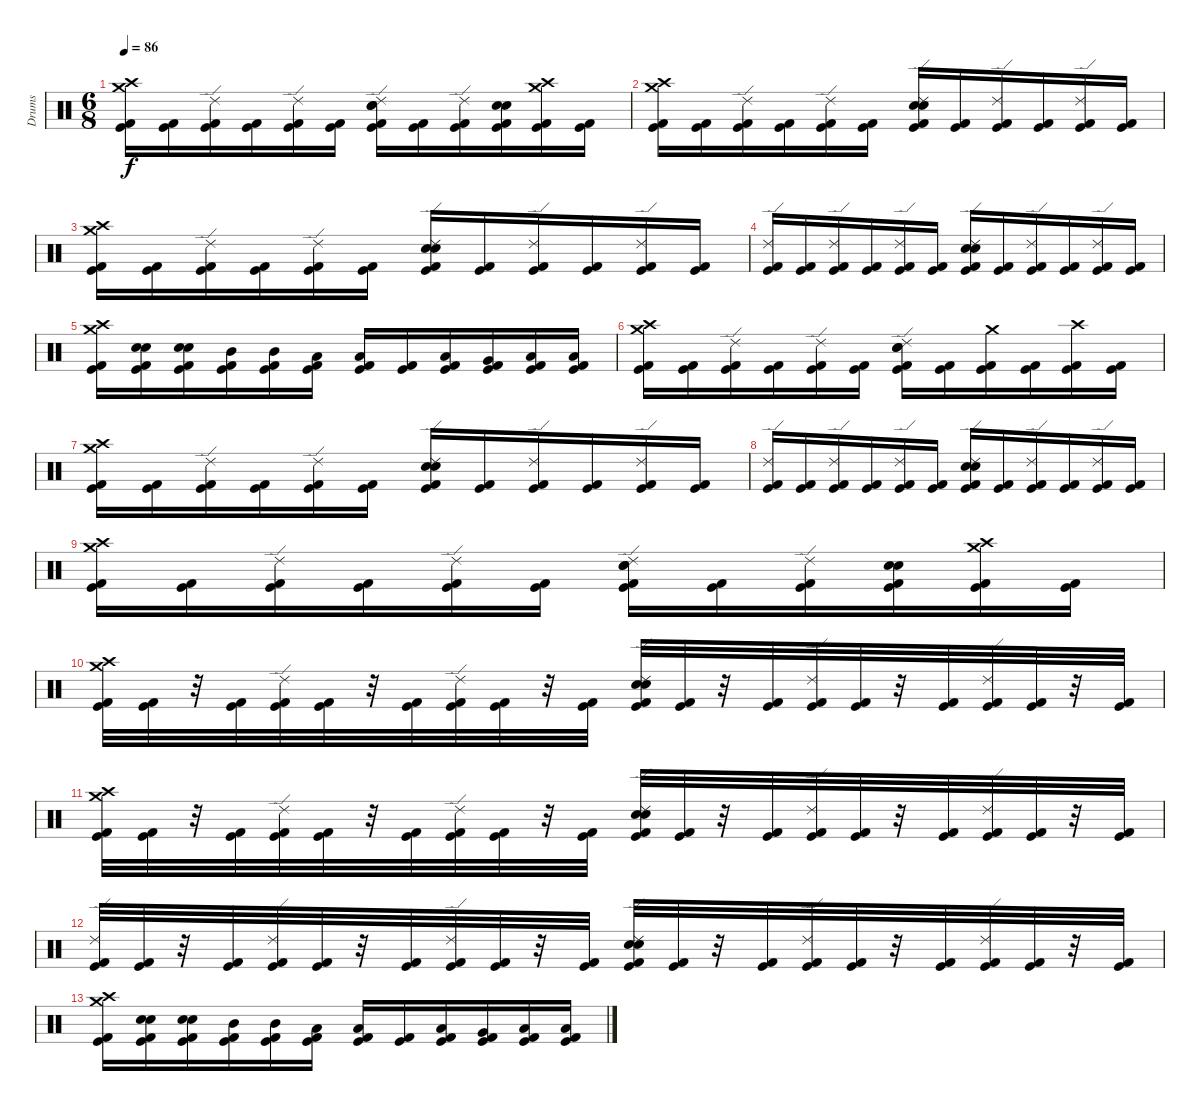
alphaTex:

\track ("Drums" "Drums") {instrument percussion}
\staff {score}
\articulation defaults
\ts (6 8)
\tempo 86
\clef neutral
\ks c
("Crash high (hit)" "Crash medium (hit)" "Kick (hit) 2" "Kick (hit)").16{dy f} ("Kick (hit) 2" "Kick (hit)").16 ("Ride (edge) 2" "Kick (hit) 2" "Kick (hit)").16 ("Kick (hit) 2" "Kick (hit)").16 ("Ride (edge) 2" "Kick (hit) 2" "Kick (hit)").16 ("Kick (hit) 2" "Kick (hit)").16 ("Electric Snare (hit)" "Snare (hit) 2" "Ride (edge) 2" "Kick (hit) 2" "Kick (hit)").16 ("Kick (hit) 2" "Kick (hit)").16 ("Ride (edge) 2" "Kick (hit) 2" "Kick (hit)").16 ("Electric Snare (hit)" "Snare (hit) 2" "Kick (hit) 2" "Kick (hit)").16 ("Crash high (hit)" "Crash medium (hit)" "Kick (hit) 2" "Kick (hit)").16 ("Kick (hit) 2" "Kick (hit)").16 |
("Crash high (hit)" "Crash medium (hit)" "Kick (hit) 2" "Kick (hit)").16 ("Kick (hit) 2" "Kick (hit)").16 ("Ride (edge) 2" "Kick (hit) 2" "Kick (hit)").16 ("Kick (hit) 2" "Kick (hit)").16 ("Ride (edge) 2" "Kick (hit) 2" "Kick (hit)").16 ("Kick (hit) 2" "Kick (hit)").16 ("Electric Snare (hit)" "Snare (hit) 2" "Ride (edge) 2" "Kick (hit) 2" "Kick (hit)").16 ("Kick (hit) 2" "Kick (hit)").16 ("Ride (edge) 2" "Kick (hit) 2" "Kick (hit)").16 ("Kick (hit) 2" "Kick (hit)").16 ("Ride (edge) 2" "Kick (hit) 2" "Kick (hit)").16 ("Kick (hit) 2" "Kick (hit)").16 |
("Crash high (hit)" "Crash medium (hit)" "Kick (hit) 2" "Kick (hit)").16 ("Kick (hit) 2" "Kick (hit)").16 ("Ride (edge) 2" "Kick (hit) 2" "Kick (hit)").16 ("Kick (hit) 2" "Kick (hit)").16 ("Ride (edge) 2" "Kick (hit) 2" "Kick (hit)").16 ("Kick (hit) 2" "Kick (hit)").16 ("Electric Snare (hit)" "Snare (hit) 2" "Ride (edge) 2" "Kick (hit) 2" "Kick (hit)").16 ("Kick (hit) 2" "Kick (hit)").16 ("Ride (edge) 2" "Kick (hit) 2" "Kick (hit)").16 ("Kick (hit) 2" "Kick (hit)").16 ("Ride (edge) 2" "Kick (hit) 2" "Kick (hit)").16 ("Kick (hit) 2" "Kick (hit)").16 |
("Ride (edge) 2" "Kick (hit) 2" "Kick (hit)").16 ("Kick (hit) 2" "Kick (hit)").16 ("Ride (edge) 2" "Kick (hit) 2" "Kick (hit)").16 ("Kick (hit) 2" "Kick (hit)").16 ("Ride (edge) 2" "Kick (hit) 2" "Kick (hit)").16 ("Kick (hit) 2" "Kick (hit)").16 ("Electric Snare (hit)" "Snare (hit) 2" "Ride (edge) 2" "Kick (hit) 2" "Kick (hit)").16 ("Kick (hit) 2" "Kick (hit)").16 ("Ride (edge) 2" "Kick (hit) 2" "Kick (hit)").16 ("Kick (hit) 2" "Kick (hit)").16 ("Ride (edge) 2" "Kick (hit) 2" "Kick (hit)").16 ("Kick (hit) 2" "Kick (hit)").16 |
("Crash high (hit)" "Crash medium (hit)" "Kick (hit) 2" "Kick (hit)").16 ("Kick (hit) 2" "Kick (hit)" "Electric Snare (hit)" "Snare (hit) 2").16 ("Kick (hit) 2" "Kick (hit)" "Electric Snare (hit)" "Snare (hit) 2").16 ("Kick (hit) 2" "Kick (hit)" "Mid Tom (hit)").16 ("Kick (hit) 2" "Kick (hit)" "Mid Tom (hit)").16 ("Kick (hit) 2" "Kick (hit)" "Low Tom (hit)").16 ("Kick (hit)" "Kick (hit) 2" "Low Tom (hit)").16 ("Kick (hit) 2" "Kick (hit)").16 ("Kick (hit) 2" "Kick (hit)" "Low Tom (hit)").16 ("Kick (hit) 2" "Kick (hit)" "Very Low Tom (hit)").16 ("Kick (hit) 2" "Kick (hit)" "Low Floor Tom (hit)").16 ("Kick (hit) 2" "Kick (hit)" "Low Floor Tom (hit)").16 |
("Crash high (hit)" "Crash medium (hit)" "Kick (hit) 2" "Kick (hit)").16{volume 16} ("Kick (hit) 2" "Kick (hit)").16{volume 16} ("Ride (edge) 2" "Kick (hit) 2" "Kick (hit)").16{volume 15} ("Kick (hit) 2" "Kick (hit)").16{volume 15} ("Ride (edge) 2" "Kick (hit) 2" "Kick (hit)").16{volume 15} ("Kick (hit) 2" "Kick (hit)").16{volume 14} ("Electric Snare (hit)" "Snare (hit) 2" "Ride (edge) 2" "Kick (hit) 2" "Kick (hit)").16{volume 14} ("Kick (hit) 2" "Kick (hit)").16{volume 14} ("Crash medium (hit)" "Kick (hit) 2" "Kick (hit)").16{volume 14} ("Kick (hit) 2" "Kick (hit)").16{volume 13} ("Crash high (hit)" "Kick (hit) 2" "Kick (hit)").16{volume 13} ("Kick (hit) 2" "Kick (hit)").16{volume 13} |
("Crash high (hit)" "Crash medium (hit)" "Kick (hit) 2" "Kick (hit)").16{volume 13} ("Kick (hit) 2" "Kick (hit)").16{volume 13} ("Ride (edge) 2" "Kick (hit) 2" "Kick (hit)").16{volume 13} ("Kick (hit) 2" "Kick (hit)").16{volume 12} ("Ride (edge) 2" "Kick (hit) 2" "Kick (hit)").16{volume 12} ("Kick (hit) 2" "Kick (hit)").16{volume 12} ("Electric Snare (hit)" "Snare (hit) 2" "Ride (edge) 2" "Kick (hit) 2" "Kick (hit)").16{volume 12} ("Kick (hit) 2" "Kick (hit)").16{volume 12} ("Ride (edge) 2" "Kick (hit) 2" "Kick (hit)").16{volume 12} ("Kick (hit) 2" "Kick (hit)").16{volume 12} ("Ride (edge) 2" "Kick (hit) 2" "Kick (hit)").16{volume 12} ("Kick (hit) 2" "Kick (hit)").16{volume 11} |
("Ride (edge) 2" "Kick (hit) 2" "Kick (hit)").16{volume 11} ("Kick (hit) 2" "Kick (hit)").16{volume 11} ("Ride (edge) 2" "Kick (hit) 2" "Kick (hit)").16{volume 11} ("Kick (hit) 2" "Kick (hit)").16{volume 11} ("Ride (edge) 2" "Kick (hit) 2" "Kick (hit)").16{volume 11} ("Kick (hit) 2" "Kick (hit)").16{volume 10} ("Electric Snare (hit)" "Snare (hit) 2" "Ride (edge) 2" "Kick (hit) 2" "Kick (hit)").16{volume 10} ("Kick (hit) 2" "Kick (hit)").16{volume 10} ("Ride (edge) 2" "Kick (hit) 2" "Kick (hit)").16{volume 10} ("Kick (hit) 2" "Kick (hit)").16{volume 10} ("Ride (edge) 2" "Kick (hit) 2" "Kick (hit)").16{volume 10} ("Kick (hit) 2" "Kick (hit)").16{volume 10} |
("Crash high (hit)" "Crash medium (hit)" "Kick (hit) 2" "Kick (hit)").16{volume 10} ("Kick (hit) 2" "Kick (hit)").16{volume 9} ("Ride (edge) 2" "Kick (hit) 2" "Kick (hit)").16{volume 9} ("Kick (hit) 2" "Kick (hit)").16{volume 9} ("Ride (edge) 2" "Kick (hit) 2" "Kick (hit)").16{volume 9} ("Kick (hit) 2" "Kick (hit)").16{volume 9} ("Electric Snare (hit)" "Snare (hit) 2" "Ride (edge) 2" "Kick (hit) 2" "Kick (hit)").16{volume 9} ("Kick (hit) 2" "Kick (hit)").16{volume 9} ("Ride (edge) 2" "Kick (hit) 2" "Kick (hit)").16{volume 8} ("Electric Snare (hit)" "Snare (hit) 2" "Kick (hit) 2" "Kick (hit)").16{volume 8} ("Crash high (hit)" "Crash medium (hit)" "Kick (hit) 2" "Kick (hit)").16{volume 8} ("Kick (hit) 2" "Kick (hit)").16{volume 8} |
("Kick (hit) 2" "Kick (hit)" "Crash high (hit)" "Crash medium (hit)").32{volume 8} ("Kick (hit) 2" "Kick (hit)").32{volume 8} r.32 ("Kick (hit) 2" "Kick (hit)").32{volume 8} ("Kick (hit) 2" "Kick (hit)" "Ride (edge) 2").32{volume 7} ("Kick (hit) 2" "Kick (hit)").32{volume 7} r.32 ("Kick (hit) 2" "Kick (hit)").32{volume 7} ("Kick (hit) 2" "Kick (hit)" "Ride (edge) 2").32{volume 7} ("Kick (hit) 2" "Kick (hit)").32{volume 7} r.32 ("Kick (hit) 2" "Kick (hit)").32{volume 6} ("Kick (hit) 2" "Kick (hit)" "Electric Snare (hit)" "Snare (hit) 2" "Ride (edge) 2").32{volume 6} ("Kick (hit) 2" "Kick (hit)").32{volume 6} r.32 ("Kick (hit) 2" "Kick (hit)").32{volume 6} ("Kick (hit) 2" "Kick (hit)" "Ride (edge) 2").32{volume 6} ("Kick (hit) 2" "Kick (hit)").32{volume 6} r.32 ("Kick (hit) 2" "Kick (hit)").32{volume 6} ("Kick (hit) 2" "Kick (hit)" "Ride (edge) 2").32{volume 5} ("Kick (hit) 2" "Kick (hit)").32{volume 5} r.32 ("Kick (hit) 2" "Kick (hit)").32{volume 5} |
("Kick (hit) 2" "Kick (hit)" "Crash high (hit)" "Crash medium (hit)").32{volume 5} ("Kick (hit) 2" "Kick (hit)").32{volume 5} r.32 ("Kick (hit) 2" "Kick (hit)").32{volume 5} ("Kick (hit) 2" "Kick (hit)" "Ride (edge) 2").32{volume 4} ("Kick (hit) 2" "Kick (hit)").32{volume 4} r.32 ("Kick (hit) 2" "Kick (hit)").32{volume 4} ("Kick (hit) 2" "Kick (hit)" "Ride (edge) 2").32{volume 4} ("Kick (hit) 2" "Kick (hit)").32{volume 4} r.32 ("Kick (hit) 2" "Kick (hit)").32{volume 4} ("Kick (hit) 2" "Kick (hit)" "Electric Snare (hit)" "Snare (hit) 2" "Ride (edge) 2").32{volume 4} ("Kick (hit) 2" "Kick (hit)").32{volume 3} r.32 ("Kick (hit) 2" "Kick (hit)").32{volume 3} ("Kick (hit) 2" "Kick (hit)" "Ride (edge) 2").32{volume 3} ("Kick (hit) 2" "Kick (hit)").32{volume 3} r.32 ("Kick (hit) 2" "Kick (hit)").32{volume 3} ("Kick (hit) 2" "Kick (hit)" "Ride (edge) 2").32{volume 2} ("Kick (hit) 2" "Kick (hit)").32{volume 2} r.32 ("Kick (hit) 2" "Kick (hit)").32{volume 2} |
("Kick (hit) 2" "Kick (hit)" "Ride (edge) 2").32{volume 2} ("Kick (hit) 2" "Kick (hit)").32{volume 2} r.32 ("Kick (hit) 2" "Kick (hit)").32{volume 2} ("Kick (hit) 2" "Kick (hit)" "Ride (edge) 2").32{volume 2} ("Kick (hit) 2" "Kick (hit)").32{volume 1} r.32 ("Kick (hit) 2" "Kick (hit)").32{volume 1} ("Kick (hit) 2" "Kick (hit)" "Ride (edge) 2").32{volume 1} ("Kick (hit) 2" "Kick (hit)").32{volume 1} r.32 ("Kick (hit) 2" "Kick (hit)").32{volume 1} ("Kick (hit) 2" "Kick (hit)" "Electric Snare (hit)" "Snare (hit) 2" "Ride (edge) 2").32{volume 1} ("Kick (hit) 2" "Kick (hit)").32{volume 0} r.32 ("Kick (hit) 2" "Kick (hit)").32{volume 0} ("Kick (hit) 2" "Kick (hit)" "Ride (edge) 2").32{volume 0} ("Kick (hit) 2" "Kick (hit)").32{volume 0} r.32 ("Kick (hit) 2" "Kick (hit)").32 ("Kick (hit) 2" "Kick (hit)" "Ride (edge) 2").32 ("Kick (hit) 2" "Kick (hit)").32 r.32 ("Kick (hit) 2" "Kick (hit)").32 |
("Crash high (hit)" "Crash medium (hit)" "Kick (hit) 2" "Kick (hit)").16 ("Kick (hit) 2" "Kick (hit)" "Electric Snare (hit)" "Snare (hit) 2").16 ("Kick (hit) 2" "Kick (hit)" "Electric Snare (hit)" "Snare (hit) 2").16 ("Kick (hit) 2" "Kick (hit)" "Mid Tom (hit)").16 ("Kick (hit) 2" "Kick (hit)" "Mid Tom (hit)").16 ("Kick (hit) 2" "Kick (hit)" "Low Tom (hit)").16 ("Kick (hit)" "Kick (hit) 2" "Low Tom (hit)").16 ("Kick (hit) 2" "Kick (hit)").16 ("Kick (hit) 2" "Kick (hit)" "Low Tom (hit)").16 ("Kick (hit) 2" "Kick (hit)" "Very Low Tom (hit)").16 ("Kick (hit) 2" "Kick (hit)" "Low Floor Tom (hit)").16 ("Kick (hit) 2" "Kick (hit)" "Low Floor Tom (hit)").16
